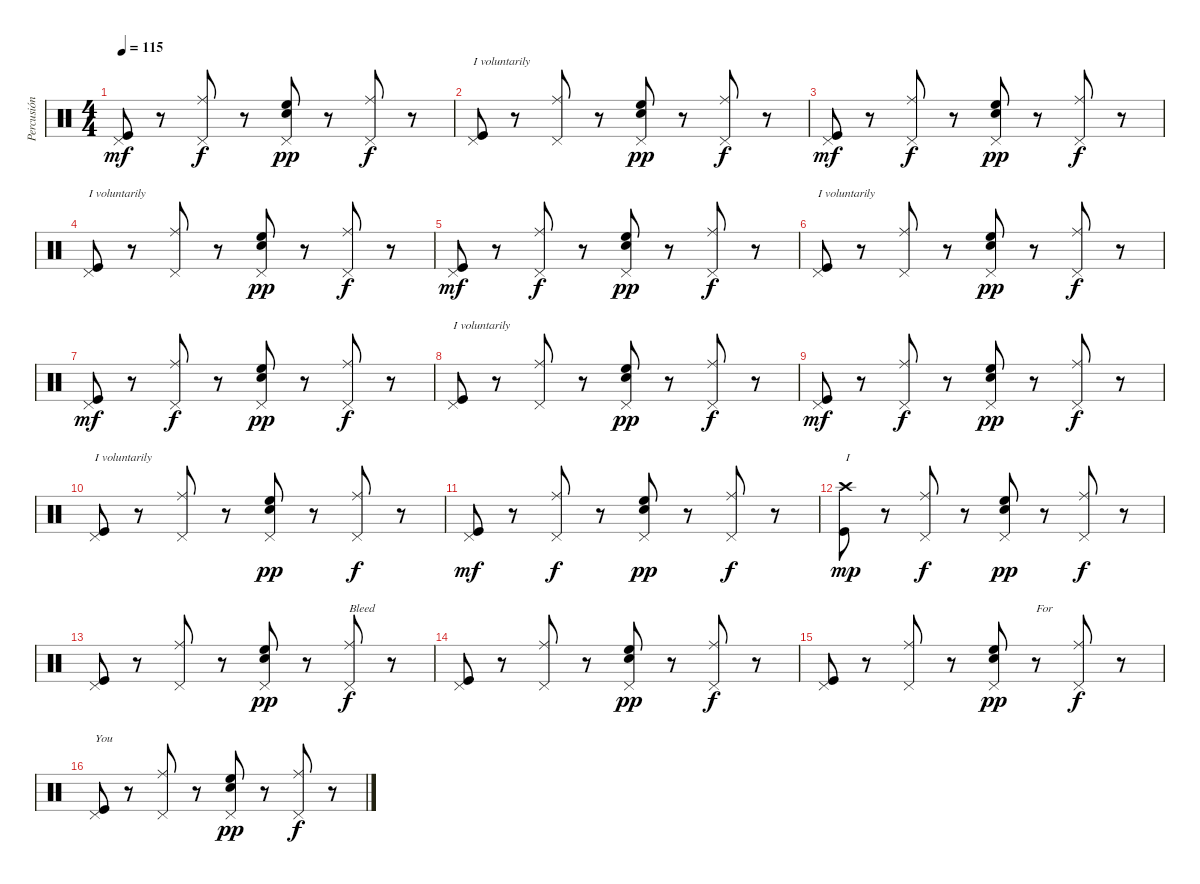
\track ("Percusión" "Percusión") {instrument percussion}
\staff {score}
\articulation defaults
\ts (4 4)
\tempo 115
\clef neutral
\ks c
("Pedal Hi-Hat (hit)" "Kick (hit)").8{dy mf} r.8 ("Pedal Hi-Hat (hit)" "Ride (middle)").8{dy f} r.8 ("Pedal Hi-Hat (hit)" "High Floor Tom (hit)" "Electric Snare (hit)").8{dy pp} r.8 ("Pedal Hi-Hat (hit)" "Ride (middle)").8{dy f} r.8 |
("Pedal Hi-Hat (hit)" "Kick (hit)").8{txt "I voluntarily"} r.8 ("Pedal Hi-Hat (hit)" "Ride (middle)").8 r.8 ("Pedal Hi-Hat (hit)" "High Floor Tom (hit)" "Electric Snare (hit)").8{dy pp} r.8 ("Pedal Hi-Hat (hit)" "Ride (middle)").8{dy f} r.8 |
("Pedal Hi-Hat (hit)" "Kick (hit)").8{dy mf} r.8 ("Pedal Hi-Hat (hit)" "Ride (middle)").8{dy f} r.8 ("Pedal Hi-Hat (hit)" "High Floor Tom (hit)" "Electric Snare (hit)").8{dy pp} r.8 ("Pedal Hi-Hat (hit)" "Ride (middle)").8{dy f} r.8 |
("Pedal Hi-Hat (hit)" "Kick (hit)").8{txt "I voluntarily"} r.8 ("Pedal Hi-Hat (hit)" "Ride (middle)").8 r.8 ("Pedal Hi-Hat (hit)" "High Floor Tom (hit)" "Electric Snare (hit)").8{dy pp} r.8 ("Pedal Hi-Hat (hit)" "Ride (middle)").8{dy f} r.8 |
("Pedal Hi-Hat (hit)" "Kick (hit)").8{dy mf} r.8 ("Pedal Hi-Hat (hit)" "Ride (middle)").8{dy f} r.8 ("Pedal Hi-Hat (hit)" "High Floor Tom (hit)" "Electric Snare (hit)").8{dy pp} r.8 ("Pedal Hi-Hat (hit)" "Ride (middle)").8{dy f} r.8 |
("Pedal Hi-Hat (hit)" "Kick (hit)").8{txt "I voluntarily"} r.8 ("Pedal Hi-Hat (hit)" "Ride (middle)").8 r.8 ("Pedal Hi-Hat (hit)" "High Floor Tom (hit)" "Electric Snare (hit)").8{dy pp} r.8 ("Pedal Hi-Hat (hit)" "Ride (middle)").8{dy f} r.8 |
("Pedal Hi-Hat (hit)" "Kick (hit)").8{dy mf} r.8 ("Pedal Hi-Hat (hit)" "Ride (middle)").8{dy f} r.8 ("Pedal Hi-Hat (hit)" "High Floor Tom (hit)" "Electric Snare (hit)").8{dy pp} r.8 ("Pedal Hi-Hat (hit)" "Ride (middle)").8{dy f} r.8 |
("Pedal Hi-Hat (hit)" "Kick (hit)").8{txt "I voluntarily"} r.8 ("Pedal Hi-Hat (hit)" "Ride (middle)").8 r.8 ("Pedal Hi-Hat (hit)" "High Floor Tom (hit)" "Electric Snare (hit)").8{dy pp} r.8 ("Pedal Hi-Hat (hit)" "Ride (middle)").8{dy f} r.8 |
("Pedal Hi-Hat (hit)" "Kick (hit)").8{dy mf} r.8 ("Pedal Hi-Hat (hit)" "Ride (middle)").8{dy f} r.8 ("Pedal Hi-Hat (hit)" "High Floor Tom (hit)" "Electric Snare (hit)").8{dy pp} r.8 ("Pedal Hi-Hat (hit)" "Ride (middle)").8{dy f} r.8 |
("Pedal Hi-Hat (hit)" "Kick (hit)").8{txt "I voluntarily"} r.8 ("Pedal Hi-Hat (hit)" "Ride (middle)").8 r.8 ("Pedal Hi-Hat (hit)" "High Floor Tom (hit)" "Electric Snare (hit)").8{dy pp} r.8 ("Pedal Hi-Hat (hit)" "Ride (middle)").8{dy f} r.8 |
("Pedal Hi-Hat (hit)" "Kick (hit)").8{dy mf} r.8 ("Pedal Hi-Hat (hit)" "Ride (middle)").8{dy f} r.8 ("Pedal Hi-Hat (hit)" "High Floor Tom (hit)" "Electric Snare (hit)").8{dy pp} r.8 ("Pedal Hi-Hat (hit)" "Ride (middle)").8{dy f} r.8 |
("Crash high (hit)" "Kick (hit)").8{txt "I" dy mp} r.8 ("Pedal Hi-Hat (hit)" "Ride (middle)").8{dy f} r.8 ("Pedal Hi-Hat (hit)" "Electric Snare (hit)" "High Floor Tom (hit)").8{dy pp} r.8 ("Pedal Hi-Hat (hit)" "Ride (middle)").8{dy f} r.8 |
("Pedal Hi-Hat (hit)" "Kick (hit)").8 r.8 ("Pedal Hi-Hat (hit)" "Ride (middle)").8 r.8 ("Pedal Hi-Hat (hit)" "High Floor Tom (hit)" "Electric Snare (hit)").8{dy pp} r.8 ("Pedal Hi-Hat (hit)" "Ride (middle)").8{txt "Bleed" dy f} r.8 |
("Pedal Hi-Hat (hit)" "Kick (hit)").8 r.8 ("Pedal Hi-Hat (hit)" "Ride (middle)").8 r.8 ("Pedal Hi-Hat (hit)" "High Floor Tom (hit)" "Electric Snare (hit)").8{dy pp} r.8 ("Pedal Hi-Hat (hit)" "Ride (middle)").8{dy f} r.8 |
("Pedal Hi-Hat (hit)" "Kick (hit)").8 r.8 ("Pedal Hi-Hat (hit)" "Ride (middle)").8 r.8 ("Pedal Hi-Hat (hit)" "High Floor Tom (hit)" "Electric Snare (hit)").8{dy pp} r.8{txt "For"} ("Pedal Hi-Hat (hit)" "Ride (middle)").8{dy f} r.8 |
("Pedal Hi-Hat (hit)" "Kick (hit)").8{txt "You"} r.8 ("Pedal Hi-Hat (hit)" "Ride (middle)").8 r.8 ("Pedal Hi-Hat (hit)" "High Floor Tom (hit)" "Electric Snare (hit)").8{dy pp} r.8 ("Pedal Hi-Hat (hit)" "Ride (middle)").8{dy f} r.8
